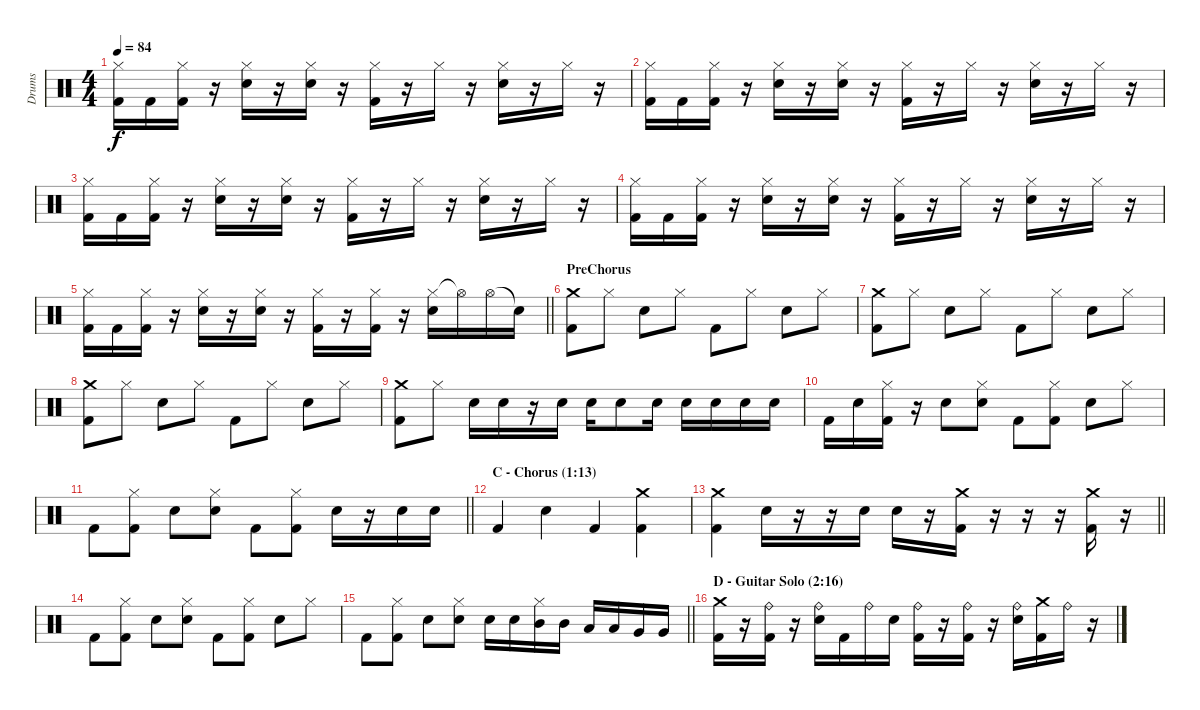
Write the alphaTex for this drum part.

\track ("Drums" "Drums") {instrument percussion}
\staff {score}
\articulation defaults
\ts (4 4)
\tempo 84
\clef neutral
\ks c
("Hi-Hat (closed)" "Kick (hit) 2").16{dy f} "Kick (hit) 2".16 ("Hi-Hat (closed)" "Kick (hit) 2").16 r.16 ("Hi-Hat (closed)" "Snare (hit) 2").16 r.16 ("Hi-Hat (closed)" "Snare (hit) 2").16 r.16 ("Hi-Hat (closed)" "Kick (hit) 2").16 r.16 "Hi-Hat (closed)".16 r.16 ("Hi-Hat (closed)" "Snare (hit) 2").16 r.16 "Hi-Hat (closed)".16 r.16 |
("Hi-Hat (closed)" "Kick (hit) 2").16 "Kick (hit) 2".16 ("Hi-Hat (closed)" "Kick (hit) 2").16 r.16 ("Hi-Hat (closed)" "Snare (hit) 2").16 r.16 ("Hi-Hat (closed)" "Snare (hit) 2").16 r.16 ("Hi-Hat (closed)" "Kick (hit) 2").16 r.16 "Hi-Hat (closed)".16 r.16 ("Hi-Hat (closed)" "Snare (hit) 2").16 r.16 "Hi-Hat (closed)".16 r.16 |
("Hi-Hat (closed)" "Kick (hit) 2").16 "Kick (hit) 2".16 ("Hi-Hat (closed)" "Kick (hit) 2").16 r.16 ("Hi-Hat (closed)" "Snare (hit) 2").16 r.16 ("Hi-Hat (closed)" "Snare (hit) 2").16 r.16 ("Hi-Hat (closed)" "Kick (hit) 2").16 r.16 "Hi-Hat (closed)".16 r.16 ("Hi-Hat (closed)" "Snare (hit) 2").16 r.16 "Hi-Hat (closed)".16 r.16 |
("Hi-Hat (closed)" "Kick (hit) 2").16 "Kick (hit) 2".16 ("Hi-Hat (closed)" "Kick (hit) 2").16 r.16 ("Hi-Hat (closed)" "Snare (hit) 2").16 r.16 ("Hi-Hat (closed)" "Snare (hit) 2").16 r.16 ("Hi-Hat (closed)" "Kick (hit) 2").16 r.16 "Hi-Hat (closed)".16 r.16 ("Hi-Hat (closed)" "Snare (hit) 2").16 r.16 "Hi-Hat (closed)".16 r.16 |
\barLineRight lightlight
("Hi-Hat (closed)" "Kick (hit) 2").16 "Kick (hit) 2".16 ("Hi-Hat (closed)" "Kick (hit) 2").16 r.16 ("Hi-Hat (closed)" "Snare (hit) 2").16 r.16 ("Hi-Hat (closed)" "Snare (hit) 2").16 r.16 ("Hi-Hat (closed)" "Kick (hit) 2").16 r.16 ("Hi-Hat (closed)" "Kick (hit) 2").16 r.16 ("Hi-Hat (closed)" "Snare (hit) 2").16 "Hi-Hat (open)"{t}.16 "Hi-Hat (open)".16 "Snare (hit)"{t}.16 |
\section ("" "PreChorus")
("Crash medium (hit)" "Kick (hit) 2").8 "Hi-Hat (closed)".8 "Snare (hit) 2".8 "Hi-Hat (closed)".8 "Kick (hit) 2".8 "Hi-Hat (closed)".8 "Snare (hit) 2".8 "Hi-Hat (closed)".8 |
("Crash medium (hit)" "Kick (hit) 2").8 "Hi-Hat (closed)".8 "Snare (hit) 2".8 "Hi-Hat (closed)".8 "Kick (hit) 2".8 "Hi-Hat (closed)".8 "Snare (hit) 2".8 "Hi-Hat (closed)".8 |
("Crash medium (hit)" "Kick (hit) 2").8 "Hi-Hat (closed)".8 "Snare (hit) 2".8 "Hi-Hat (closed)".8 "Kick (hit) 2".8 "Hi-Hat (closed)".8 "Snare (hit) 2".8 "Hi-Hat (closed)".8 |
("Crash medium (hit)" "Kick (hit) 2").8 "Hi-Hat (closed)".8 "Snare (hit) 2".16 "Snare (hit) 2".16 r.16 "Snare (hit) 2".16 "Snare (hit) 2".16 "Snare (hit) 2".8 "Snare (hit) 2".16 "Snare (hit) 2".16 "Snare (hit) 2".16 "Snare (hit) 2".16 "Snare (hit) 2".16 |
"Kick (hit) 2".16 "Snare (hit) 2".16 ("Hi-Hat (closed)" "Kick (hit) 2").16 r.16 "Snare (hit) 2".8 ("Hi-Hat (closed)" "Snare (hit) 2").8 "Kick (hit) 2".8 ("Hi-Hat (closed)" "Kick (hit) 2").8 "Snare (hit) 2".8 "Hi-Hat (closed)".8 |
\barLineRight lightlight "Kick (hit) 2".8
("Hi-Hat (closed)" "Kick (hit) 2").8 "Snare (hit) 2".8 ("Hi-Hat (closed)" "Snare (hit) 2").8 "Kick (hit) 2".8 ("Hi-Hat (closed)" "Kick (hit) 2").8 "Snare (hit) 2".16 r.16 "Snare (hit) 2".16 "Snare (hit) 2".16 |
\section ("" "C - Chorus (1:13)")
"Kick (hit) 2".4 "Snare (hit) 2".4 "Kick (hit) 2".4 ("Crash medium (hit)" "Kick (hit) 2").4 |
\barLineRight lightlight
("Crash medium (hit)" "Kick (hit) 2").4 "Snare (hit) 2".16 r.16 r.16 "Snare (hit) 2".16 "Snare (hit) 2".16 r.16 ("Crash medium (hit)" "Kick (hit) 2").16 r.16 r.16 r.16 ("Crash medium (hit)" "Kick (hit) 2").16 r.16 |
"Kick (hit) 2".8 ("Hi-Hat (closed)" "Kick (hit) 2").8 "Snare (hit) 2".8 ("Hi-Hat (closed)" "Snare (hit) 2").8 "Kick (hit) 2".8 ("Hi-Hat (closed)" "Kick (hit) 2").8 "Snare (hit) 2".8 "Hi-Hat (closed)".8 |
\barLineRight lightlight "Kick (hit) 2".8
("Hi-Hat (closed)" "Kick (hit) 2").8 "Snare (hit) 2".8 ("Hi-Hat (closed)" "Snare (hit) 2").8 "Snare (hit) 2".16 "Snare (hit) 2".16 ("Hi-Hat (closed)" "Mid Tom (hit)").16 "Mid Tom (hit)".16 "Low Tom (hit)".16 "Low Tom (hit)".16 "Very Low Tom (hit)".16 "Very Low Tom (hit)".16 |
\section ("" "D - Guitar Solo (2:16)")
("Crash medium (hit)" "Kick (hit) 2").16 r.16 ("Ride (bell)" "Kick (hit) 2").16 r.16 ("Ride (bell)" "Snare (hit) 2").16 "Kick (hit) 2".16 "Ride (bell)".16 "Snare (hit) 2".16 ("Ride (bell)" "Kick (hit) 2").16 r.16 ("Ride (bell)" "Kick (hit) 2").16 r.16 ("Ride (bell)" "Snare (hit) 2").16 ("Crash medium (hit)" "Kick (hit) 2").16 "Ride (bell)".16 r.16
